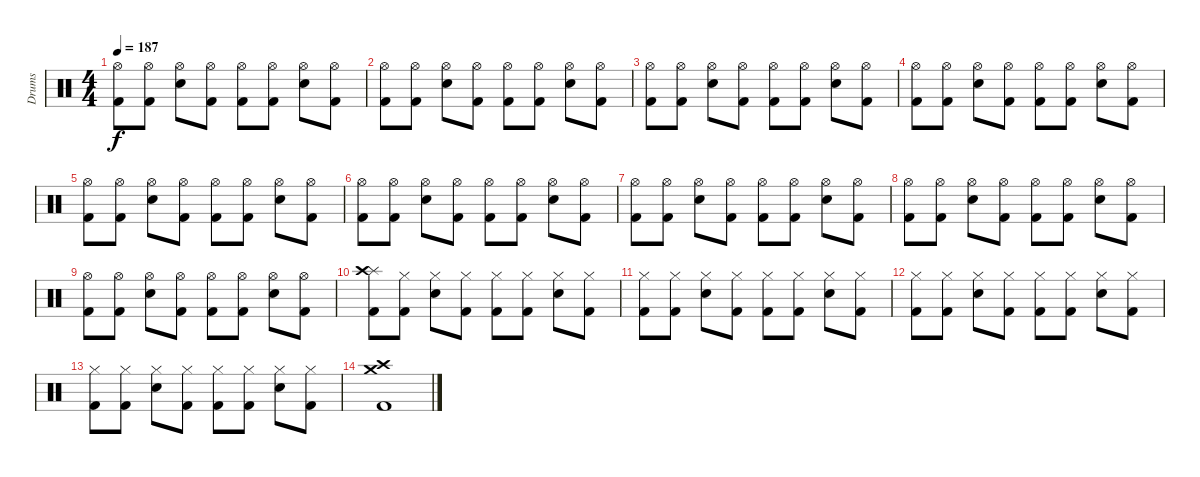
\track ("Drums" "Drums") {instrument percussion}
\staff {score}
\articulation defaults
\ts (4 4)
\tempo 187
\clef neutral
\ks c
("Hi-Hat (open)" "Kick (hit) 2").8{dy f} ("Hi-Hat (open)" "Kick (hit) 2").8 ("Hi-Hat (open)" "Electric Snare (hit)").8 ("Hi-Hat (open)" "Kick (hit) 2").8 ("Hi-Hat (open)" "Kick (hit) 2").8 ("Hi-Hat (open)" "Kick (hit) 2").8 ("Hi-Hat (open)" "Snare (hit) 2").8 ("Hi-Hat (open)" "Kick (hit) 2").8 |
("Hi-Hat (open)" "Kick (hit) 2").8 ("Hi-Hat (open)" "Kick (hit) 2").8 ("Hi-Hat (open)" "Electric Snare (hit)").8 ("Hi-Hat (open)" "Kick (hit) 2").8 ("Hi-Hat (open)" "Kick (hit) 2").8 ("Hi-Hat (open)" "Kick (hit) 2").8 ("Hi-Hat (open)" "Snare (hit) 2").8 ("Hi-Hat (open)" "Kick (hit) 2").8 |
("Hi-Hat (open)" "Kick (hit) 2").8 ("Hi-Hat (open)" "Kick (hit) 2").8 ("Hi-Hat (open)" "Electric Snare (hit)").8 ("Hi-Hat (open)" "Kick (hit) 2").8 ("Hi-Hat (open)" "Kick (hit) 2").8 ("Hi-Hat (open)" "Kick (hit) 2").8 ("Hi-Hat (open)" "Snare (hit) 2").8 ("Hi-Hat (open)" "Kick (hit) 2").8 |
("Hi-Hat (open)" "Kick (hit) 2").8 ("Hi-Hat (open)" "Kick (hit) 2").8 ("Hi-Hat (open)" "Electric Snare (hit)").8 ("Hi-Hat (open)" "Kick (hit) 2").8 ("Hi-Hat (open)" "Kick (hit) 2").8 ("Hi-Hat (open)" "Kick (hit) 2").8 ("Hi-Hat (open)" "Snare (hit) 2").8 ("Hi-Hat (open)" "Kick (hit) 2").8 |
("Hi-Hat (open)" "Kick (hit) 2").8 ("Hi-Hat (open)" "Kick (hit) 2").8 ("Hi-Hat (open)" "Electric Snare (hit)").8 ("Hi-Hat (open)" "Kick (hit) 2").8 ("Hi-Hat (open)" "Kick (hit) 2").8 ("Hi-Hat (open)" "Kick (hit) 2").8 ("Hi-Hat (open)" "Snare (hit) 2").8 ("Hi-Hat (open)" "Kick (hit) 2").8 |
("Hi-Hat (open)" "Kick (hit) 2").8 ("Hi-Hat (open)" "Kick (hit) 2").8 ("Hi-Hat (open)" "Electric Snare (hit)").8 ("Hi-Hat (open)" "Kick (hit) 2").8 ("Hi-Hat (open)" "Kick (hit) 2").8 ("Hi-Hat (open)" "Kick (hit) 2").8 ("Hi-Hat (open)" "Snare (hit) 2").8 ("Hi-Hat (open)" "Kick (hit) 2").8 |
("Hi-Hat (open)" "Kick (hit) 2").8 ("Hi-Hat (open)" "Kick (hit) 2").8 ("Hi-Hat (open)" "Electric Snare (hit)").8 ("Hi-Hat (open)" "Kick (hit) 2").8 ("Hi-Hat (open)" "Kick (hit) 2").8 ("Hi-Hat (open)" "Kick (hit) 2").8 ("Hi-Hat (open)" "Snare (hit) 2").8 ("Hi-Hat (open)" "Kick (hit) 2").8 |
("Hi-Hat (open)" "Kick (hit) 2").8 ("Hi-Hat (open)" "Kick (hit) 2").8 ("Hi-Hat (open)" "Electric Snare (hit)").8 ("Hi-Hat (open)" "Kick (hit) 2").8 ("Hi-Hat (open)" "Kick (hit) 2").8 ("Hi-Hat (open)" "Kick (hit) 2").8 ("Hi-Hat (open)" "Snare (hit) 2").8 ("Hi-Hat (open)" "Kick (hit) 2").8 |
("Hi-Hat (open)" "Kick (hit) 2").8 ("Hi-Hat (open)" "Kick (hit) 2").8 ("Hi-Hat (open)" "Electric Snare (hit)").8 ("Hi-Hat (open)" "Kick (hit) 2").8 ("Hi-Hat (open)" "Kick (hit) 2").8 ("Hi-Hat (open)" "Kick (hit) 2").8 ("Hi-Hat (open)" "Snare (hit) 2").8 ("Hi-Hat (open)" "Kick (hit) 2").8 |
("Splash (hit)" "Crash high (hit)" "Kick (hit) 2").8 ("Hi-Hat (closed)" "Kick (hit) 2").8 ("Hi-Hat (closed)" "Snare (hit) 2").8 ("Kick (hit) 2" "Hi-Hat (closed)").8 ("Hi-Hat (closed)" "Kick (hit) 2").8 ("Hi-Hat (closed)" "Kick (hit) 2").8 ("Hi-Hat (closed)" "Snare (hit) 2").8 ("Kick (hit) 2" "Hi-Hat (closed)").8 |
("Hi-Hat (closed)" "Kick (hit) 2").8 ("Hi-Hat (closed)" "Kick (hit) 2").8 ("Hi-Hat (closed)" "Snare (hit) 2").8 ("Kick (hit) 2" "Hi-Hat (closed)").8 ("Hi-Hat (closed)" "Kick (hit) 2").8 ("Hi-Hat (closed)" "Kick (hit) 2").8 ("Hi-Hat (closed)" "Snare (hit) 2").8 ("Kick (hit) 2" "Hi-Hat (closed)").8 |
("Hi-Hat (closed)" "Kick (hit) 2").8 ("Hi-Hat (closed)" "Kick (hit) 2").8 ("Hi-Hat (closed)" "Snare (hit) 2").8 ("Kick (hit) 2" "Hi-Hat (closed)").8 ("Hi-Hat (closed)" "Kick (hit) 2").8 ("Hi-Hat (closed)" "Kick (hit) 2").8 ("Hi-Hat (closed)" "Snare (hit) 2").8 ("Kick (hit) 2" "Hi-Hat (closed)").8 |
("Hi-Hat (closed)" "Kick (hit) 2").8 ("Hi-Hat (closed)" "Kick (hit) 2").8 ("Hi-Hat (closed)" "Snare (hit) 2").8 ("Kick (hit) 2" "Hi-Hat (closed)").8 ("Hi-Hat (closed)" "Kick (hit) 2").8 ("Hi-Hat (closed)" "Kick (hit) 2").8 ("Hi-Hat (closed)" "Snare (hit) 2").8 ("Kick (hit) 2" "Hi-Hat (closed)").8 |
("Crash medium (hit)" "Crash high (hit)" "Kick (hit) 2").1
